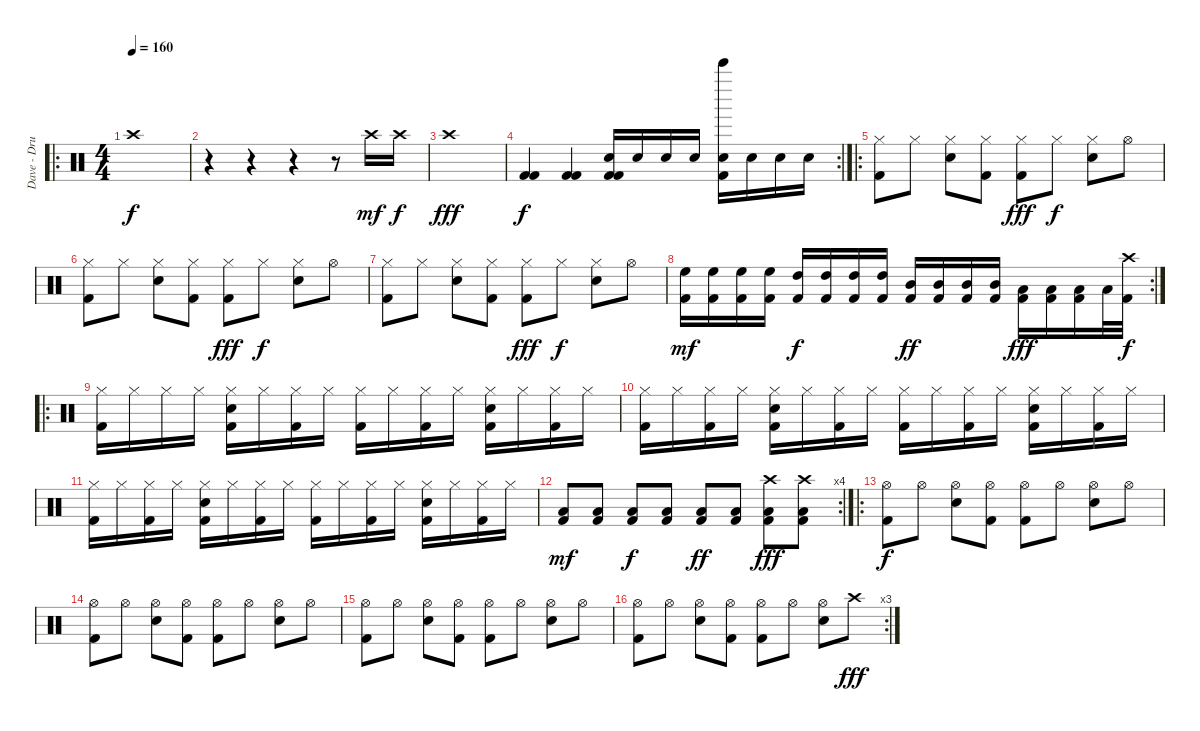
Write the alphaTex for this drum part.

\track ("Dave - Drums" "Dave - Dru") {instrument percussion}
\staff {score}
\articulation defaults
\ro
\ts (4 4)
\tempo 160
\clef neutral
\ks c "Crash high (hit)".1{dy f}
|
r.4 r.4 r.4 r.8 "Crash high (hit)".16{dy mf} "Crash high (hit)".16{dy f} |
"Crash high (hit)".1{dy fff} |
\rc 2
("Kick (hit) 2" "Kick (hit) 2").4{dy f} ("Kick (hit) 2" "Kick (hit) 2").4 ("Kick (hit) 2" "Snare (hit) 2" "Kick (hit) 2").16 "Snare (hit) 2".16 "Snare (hit) 2".16 "Snare (hit) 2".16 ("Bell Tree (hit)" "Snare (hit) 2" "Kick (hit) 2").16 "Snare (hit) 2".16 "Snare (hit) 2".16 "Snare (hit) 2".16 |
\ro
("Hi-Hat (closed)" "Kick (hit) 2").8 "Hi-Hat (closed)".8 ("Hi-Hat (closed)" "Snare (hit) 2").8 ("Hi-Hat (closed)" "Kick (hit) 2").8 ("Hi-Hat (closed)" "Kick (hit) 2").8{dy fff} "Hi-Hat (closed)".8{dy f} ("Hi-Hat (closed)" "Snare (hit) 2").8 "Hi-Hat (open)".8 |
("Hi-Hat (closed)" "Kick (hit) 2").8 "Hi-Hat (closed)".8 ("Hi-Hat (closed)" "Snare (hit) 2").8 ("Hi-Hat (closed)" "Kick (hit) 2").8 ("Hi-Hat (closed)" "Kick (hit) 2").8{dy fff} "Hi-Hat (closed)".8{dy f} ("Hi-Hat (closed)" "Snare (hit) 2").8 "Hi-Hat (open)".8 |
("Hi-Hat (closed)" "Kick (hit) 2").8 "Hi-Hat (closed)".8 ("Hi-Hat (closed)" "Snare (hit) 2").8 ("Hi-Hat (closed)" "Kick (hit) 2").8 ("Hi-Hat (closed)" "Kick (hit) 2").8{dy fff} "Hi-Hat (closed)".8{dy f} ("Hi-Hat (closed)" "Snare (hit) 2").8 "Hi-Hat (open)".8 |
\rc 2
("High Floor Tom (hit)" "Kick (hit) 2").16{dy mf} ("High Floor Tom (hit)" "Kick (hit) 2").16 ("High Floor Tom (hit)" "Kick (hit) 2").16 ("High Floor Tom (hit)" "Kick (hit) 2").16 ("High Tom (hit)" "Kick (hit) 2").16{dy f} ("High Tom (hit)" "Kick (hit) 2").16 ("High Tom (hit)" "Kick (hit) 2").16 ("High Tom (hit)" "Kick (hit) 2").16 ("Mid Tom (hit)" "Kick (hit) 2").16{dy ff} ("Mid Tom (hit)" "Kick (hit) 2").16 ("Mid Tom (hit)" "Kick (hit) 2").16 ("Mid Tom (hit)" "Kick (hit) 2").16 ("Low Tom (hit)" "Kick (hit) 2").16{dy fff} ("Low Tom (hit)" "Kick (hit) 2").16 ("Low Tom (hit)" "Kick (hit) 2").16 "Low Tom (hit)".32 ("Crash high (hit)" "Kick (hit) 2").32{dy f} |
\ro
("Hi-Hat (closed)" "Kick (hit) 2").16 "Hi-Hat (closed)".16 "Hi-Hat (closed)".16 "Hi-Hat (closed)".16 ("Hi-Hat (closed)" "Snare (hit) 2" "Kick (hit) 2").16 "Hi-Hat (closed)".16 ("Hi-Hat (closed)" "Kick (hit) 2").16 "Hi-Hat (closed)".16 ("Hi-Hat (closed)" "Kick (hit) 2").16 "Hi-Hat (closed)".16 ("Hi-Hat (closed)" "Kick (hit) 2").16 "Hi-Hat (closed)".16 ("Hi-Hat (closed)" "Snare (hit) 2" "Kick (hit) 2").16 "Hi-Hat (closed)".16 ("Hi-Hat (closed)" "Kick (hit) 2").16 "Hi-Hat (closed)".16 |
("Hi-Hat (closed)" "Kick (hit) 2").16 "Hi-Hat (closed)".16 ("Hi-Hat (closed)" "Kick (hit) 2").16 "Hi-Hat (closed)".16 ("Hi-Hat (closed)" "Snare (hit) 2" "Kick (hit) 2").16 "Hi-Hat (closed)".16 ("Hi-Hat (closed)" "Kick (hit) 2").16 "Hi-Hat (closed)".16 ("Hi-Hat (closed)" "Kick (hit) 2").16 "Hi-Hat (closed)".16 ("Hi-Hat (closed)" "Kick (hit) 2").16 "Hi-Hat (closed)".16 ("Hi-Hat (closed)" "Snare (hit) 2" "Kick (hit) 2").16 "Hi-Hat (closed)".16 ("Hi-Hat (closed)" "Kick (hit) 2").16 "Hi-Hat (closed)".16 |
("Hi-Hat (closed)" "Kick (hit) 2").16 "Hi-Hat (closed)".16 ("Hi-Hat (closed)" "Kick (hit) 2").16 "Hi-Hat (closed)".16 ("Hi-Hat (closed)" "Snare (hit) 2" "Kick (hit) 2").16 "Hi-Hat (closed)".16 ("Hi-Hat (closed)" "Kick (hit) 2").16 "Hi-Hat (closed)".16 ("Hi-Hat (closed)" "Kick (hit) 2").16 "Hi-Hat (closed)".16 ("Hi-Hat (closed)" "Kick (hit) 2").16 "Hi-Hat (closed)".16 ("Hi-Hat (closed)" "Snare (hit) 2" "Kick (hit) 2").16 "Hi-Hat (closed)".16 ("Hi-Hat (closed)" "Kick (hit) 2").16 "Hi-Hat (closed)".16 |
\rc 4
("Low Tom (hit)" "Kick (hit) 2").8{dy mf} ("Low Tom (hit)" "Kick (hit) 2").8 ("Low Tom (hit)" "Kick (hit) 2").8{dy f} ("Low Tom (hit)" "Kick (hit) 2").8 ("Low Tom (hit)" "Kick (hit) 2").8{dy ff} ("Low Tom (hit)" "Kick (hit) 2").8 ("Crash high (hit)" "Low Tom (hit)" "Kick (hit) 2").8{dy fff} ("Crash high (hit)" "Low Tom (hit)" "Kick (hit) 2").8 |
\ro
("Hi-Hat (open)" "Kick (hit) 2").8{dy f} "Hi-Hat (open)".8 ("Hi-Hat (open)" "Snare (hit) 2").8 ("Hi-Hat (open)" "Kick (hit) 2").8 ("Hi-Hat (open)" "Kick (hit) 2").8 "Hi-Hat (open)".8 ("Hi-Hat (open)" "Snare (hit) 2").8 "Hi-Hat (open)".8 |
("Hi-Hat (open)" "Kick (hit) 2").8 "Hi-Hat (open)".8 ("Hi-Hat (open)" "Snare (hit) 2").8 ("Hi-Hat (open)" "Kick (hit) 2").8 ("Hi-Hat (open)" "Kick (hit) 2").8 "Hi-Hat (open)".8 ("Hi-Hat (open)" "Snare (hit) 2").8 "Hi-Hat (open)".8 |
("Hi-Hat (open)" "Kick (hit) 2").8 "Hi-Hat (open)".8 ("Hi-Hat (open)" "Snare (hit) 2").8 ("Hi-Hat (open)" "Kick (hit) 2").8 ("Hi-Hat (open)" "Kick (hit) 2").8 "Hi-Hat (open)".8 ("Hi-Hat (open)" "Snare (hit) 2").8 "Hi-Hat (open)".8 |
\rc 3
("Hi-Hat (open)" "Kick (hit) 2").8 "Hi-Hat (open)".8 ("Hi-Hat (open)" "Snare (hit) 2").8 ("Hi-Hat (open)" "Kick (hit) 2").8 ("Hi-Hat (open)" "Kick (hit) 2").8 "Hi-Hat (open)".8 ("Hi-Hat (open)" "Snare (hit) 2").8 "Crash high (hit)".8{dy fff}
